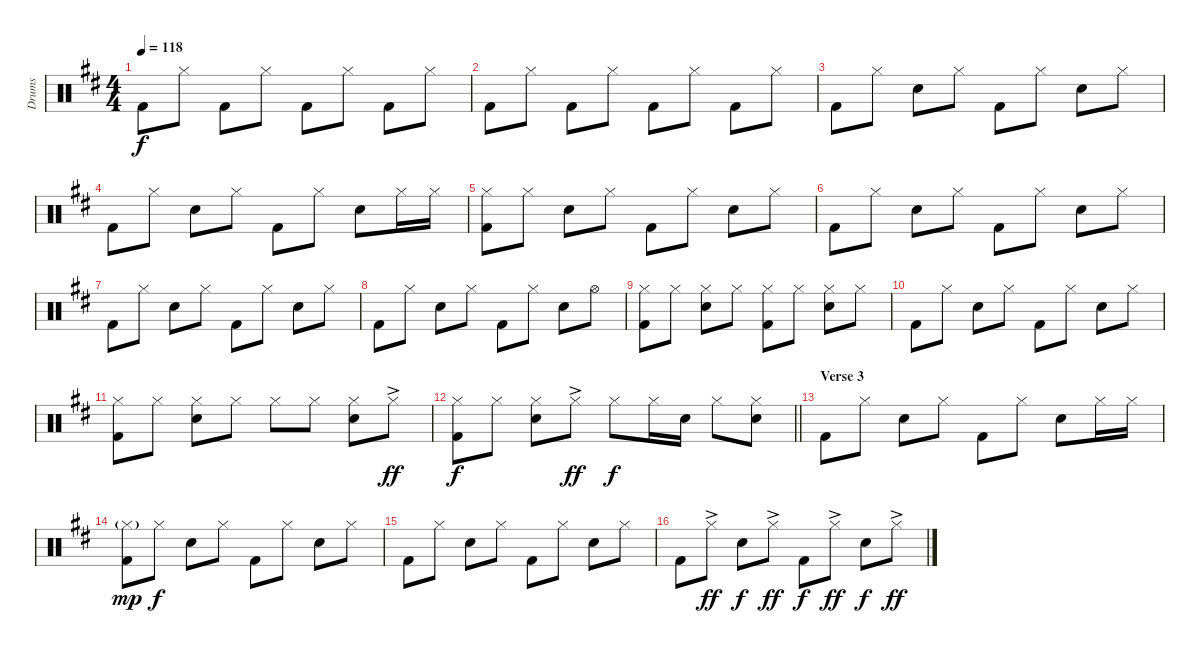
\track ("Drums" "Drums") {instrument percussion}
\staff {score}
\articulation defaults
\ts (4 4)
\tempo 118
\clef neutral
\ks bminor "Kick (hit) 2".8{dy f} "Hi-Hat (closed)".8 "Kick (hit) 2".8 "Hi-Hat (closed)".8 "Kick (hit) 2".8 "Hi-Hat (closed)".8 "Kick (hit) 2".8 "Hi-Hat (closed)".8
|
"Kick (hit) 2".8 "Hi-Hat (closed)".8 "Kick (hit) 2".8 "Hi-Hat (closed)".8 "Kick (hit) 2".8 "Hi-Hat (closed)".8 "Kick (hit) 2".8 "Hi-Hat (closed)".8 |
"Kick (hit) 2".8 "Hi-Hat (closed)".8 "Snare (hit) 2".8 "Hi-Hat (closed)".8 "Kick (hit) 2".8 "Hi-Hat (closed)".8 "Snare (hit) 2".8 "Hi-Hat (closed)".8 |
"Kick (hit) 2".8 "Hi-Hat (closed)".8 "Snare (hit) 2".8 "Hi-Hat (closed)".8 "Kick (hit) 2".8 "Hi-Hat (closed)".8 "Snare (hit) 2".8 "Hi-Hat (closed)".16 "Hi-Hat (closed)".16 |
("Hi-Hat (closed)" "Kick (hit) 2").8 "Hi-Hat (closed)".8 "Snare (hit) 2".8 "Hi-Hat (closed)".8 "Kick (hit) 2".8 "Hi-Hat (closed)".8 "Snare (hit) 2".8 "Hi-Hat (closed)".8 |
"Kick (hit) 2".8 "Hi-Hat (closed)".8 "Snare (hit) 2".8 "Hi-Hat (closed)".8 "Kick (hit) 2".8 "Hi-Hat (closed)".8 "Snare (hit) 2".8 "Hi-Hat (closed)".8 |
"Kick (hit) 2".8 "Hi-Hat (closed)".8 "Snare (hit) 2".8 "Hi-Hat (closed)".8 "Kick (hit) 2".8 "Hi-Hat (closed)".8 "Snare (hit) 2".8 "Hi-Hat (closed)".8 |
"Kick (hit) 2".8 "Hi-Hat (closed)".8 "Snare (hit) 2".8 "Hi-Hat (closed)".8 "Kick (hit) 2".8 "Hi-Hat (closed)".8 "Snare (hit) 2".8 "Hi-Hat (open)".8 |
("Hi-Hat (closed)" "Kick (hit) 2").8 "Hi-Hat (closed)".8 ("Hi-Hat (closed)" "Snare (hit) 2").8 "Hi-Hat (closed)".8 ("Hi-Hat (closed)" "Kick (hit) 2").8 "Hi-Hat (closed)".8 ("Hi-Hat (closed)" "Snare (hit) 2").8 "Hi-Hat (closed)".8 |
"Kick (hit) 2".8 "Hi-Hat (closed)".8 "Snare (hit) 2".8 "Hi-Hat (closed)".8 "Kick (hit) 2".8 "Hi-Hat (closed)".8 "Snare (hit) 2".8 "Hi-Hat (closed)".8 |
("Hi-Hat (closed)" "Kick (hit) 2").8 "Hi-Hat (closed)".8 ("Hi-Hat (closed)" "Snare (hit) 2").8 "Hi-Hat (closed)".8 "Hi-Hat (closed)".8 "Hi-Hat (closed)".8 ("Hi-Hat (closed)" "Snare (hit) 2").8 "Hi-Hat (closed)"{ac}.8{dy ff} |
\barLineRight lightlight
("Hi-Hat (closed)" "Kick (hit) 2").8{dy f} "Hi-Hat (closed)".8 ("Hi-Hat (closed)" "Snare (hit) 2").8 "Hi-Hat (closed)"{ac}.8{dy ff} "Hi-Hat (closed)".8{dy f} "Hi-Hat (closed)".16 "Snare (hit) 2".16 "Hi-Hat (closed)".8 ("Hi-Hat (closed)" "Snare (hit) 2").8 |
\section ("" "Verse 3")
"Kick (hit) 2".8 "Hi-Hat (closed)".8 "Snare (hit) 2".8 "Hi-Hat (closed)".8 "Kick (hit) 2".8 "Hi-Hat (closed)".8 "Snare (hit) 2".8 "Hi-Hat (closed)".16 "Hi-Hat (closed)".16 |
("Hi-Hat (closed)"{g} "Kick (hit) 2").8{dy mp} "Hi-Hat (closed)".8{dy f} "Snare (hit) 2".8 "Hi-Hat (closed)".8 "Kick (hit) 2".8 "Hi-Hat (closed)".8 "Snare (hit) 2".8 "Hi-Hat (closed)".8 |
"Kick (hit) 2".8 "Hi-Hat (closed)".8 "Snare (hit) 2".8 "Hi-Hat (closed)".8 "Kick (hit) 2".8 "Hi-Hat (closed)".8 "Snare (hit) 2".8 "Hi-Hat (closed)".8 |
"Kick (hit) 2".8 "Hi-Hat (closed)"{ac}.8{dy ff} "Snare (hit) 2".8{dy f} "Hi-Hat (closed)"{ac}.8{dy ff} "Kick (hit) 2".8{dy f} "Hi-Hat (closed)"{ac}.8{dy ff} "Snare (hit) 2".8{dy f} "Hi-Hat (closed)"{ac}.8{dy ff}
